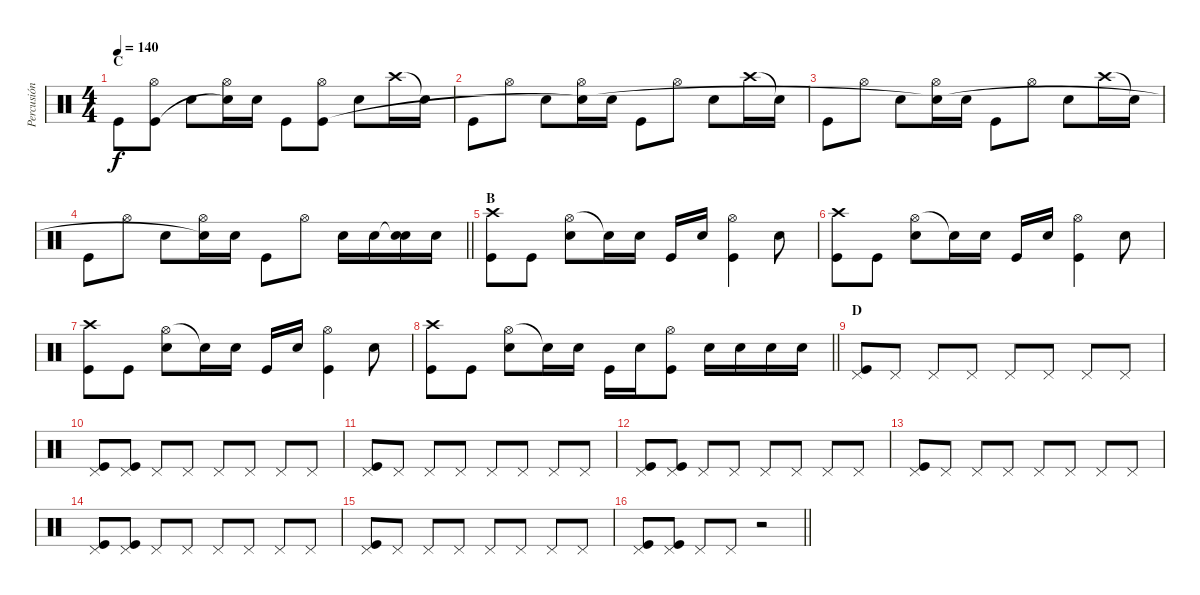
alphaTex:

\track ("Percusión" "Percusión") {instrument percussion}
\staff {score}
\articulation defaults
\ts (4 4)
\section ("" "C")
\tempo 140
\clef neutral
\ks c "Kick (hit)".8{dy f}
("Hi-Hat (open)" "Kick (hit)").8 "Electric Snare (hit)".8 ("Hi-Hat (open)" "Electric Snare (hit)"{t}).16 "Electric Snare (hit)".16 "Kick (hit)".8 ("Hi-Hat (open)" "Kick (hit)").8 "Electric Snare (hit)".8 "Crash high (hit)".16 "Snare (hit)"{t}.16 |
"Kick (hit)".8 "Hi-Hat (open)".8 "Electric Snare (hit)".8 ("Hi-Hat (open)" "Electric Snare (hit)"{t}).16 "Electric Snare (hit)".16 "Kick (hit)".8 "Hi-Hat (open)".8 "Electric Snare (hit)".8 "Crash high (hit)".16 "Snare (hit)"{t}.16 |
"Kick (hit)".8 "Hi-Hat (open)".8 "Electric Snare (hit)".8 ("Hi-Hat (open)" "Electric Snare (hit)"{t}).16 "Electric Snare (hit)".16 "Kick (hit)".8 "Hi-Hat (open)".8 "Electric Snare (hit)".8 "Crash high (hit)".16 "Snare (hit)"{t}.16 |
\barLineRight lightlight "Kick (hit)".8 "Hi-Hat (open)".8 "Electric Snare (hit)".8
("Hi-Hat (open)" "Electric Snare (hit)"{t}).16 "Electric Snare (hit)".16 "Kick (hit)".8 "Hi-Hat (open)".8 "Electric Snare (hit)".16 "Electric Snare (hit)".16 ("Snare (hit)"{t} "Electric Snare (hit)").16 "Electric Snare (hit)".16 |
\section ("" "B")
("Crash high (hit)" "Kick (hit)").8 "Kick (hit)".8 ("Hi-Hat (open)" "Electric Snare (hit)").8 "Electric Snare (hit)"{t}.16 "Electric Snare (hit)".16 "Kick (hit)".16 "Electric Snare (hit)".16 ("Hi-Hat (open)" "Kick (hit)").4 "Electric Snare (hit)".8 |
("Crash high (hit)" "Kick (hit)").8 "Kick (hit)".8 ("Hi-Hat (open)" "Electric Snare (hit)").8 "Electric Snare (hit)"{t}.16 "Electric Snare (hit)".16 "Kick (hit)".16 "Electric Snare (hit)".16 ("Hi-Hat (open)" "Kick (hit)").4 "Electric Snare (hit)".8 |
("Crash high (hit)" "Kick (hit)").8 "Kick (hit)".8 ("Hi-Hat (open)" "Electric Snare (hit)").8 "Electric Snare (hit)"{t}.16 "Electric Snare (hit)".16 "Kick (hit)".16 "Electric Snare (hit)".16 ("Hi-Hat (open)" "Kick (hit)").4 "Electric Snare (hit)".8 |
\barLineRight lightlight
("Crash high (hit)" "Kick (hit)").8 "Kick (hit)".8 ("Hi-Hat (open)" "Electric Snare (hit)").8 "Electric Snare (hit)"{t}.16 "Electric Snare (hit)".16 "Kick (hit)".16 "Electric Snare (hit)".16 ("Hi-Hat (open)" "Kick (hit)").8 "Electric Snare (hit)".16 "Electric Snare (hit)".16 "Electric Snare (hit)".16 "Electric Snare (hit)".16 |
\section ("" "D")
("Pedal Hi-Hat (hit)" "Kick (hit)").8 "Pedal Hi-Hat (hit)".8 "Pedal Hi-Hat (hit)".8 "Pedal Hi-Hat (hit)".8 "Pedal Hi-Hat (hit)".8 "Pedal Hi-Hat (hit)".8 "Pedal Hi-Hat (hit)".8 "Pedal Hi-Hat (hit)".8 |
("Pedal Hi-Hat (hit)" "Kick (hit)").8 ("Pedal Hi-Hat (hit)" "Kick (hit)").8 "Pedal Hi-Hat (hit)".8 "Pedal Hi-Hat (hit)".8 "Pedal Hi-Hat (hit)".8 "Pedal Hi-Hat (hit)".8 "Pedal Hi-Hat (hit)".8 "Pedal Hi-Hat (hit)".8 |
("Pedal Hi-Hat (hit)" "Kick (hit)").8 "Pedal Hi-Hat (hit)".8 "Pedal Hi-Hat (hit)".8 "Pedal Hi-Hat (hit)".8 "Pedal Hi-Hat (hit)".8 "Pedal Hi-Hat (hit)".8 "Pedal Hi-Hat (hit)".8 "Pedal Hi-Hat (hit)".8 |
("Pedal Hi-Hat (hit)" "Kick (hit)").8 ("Pedal Hi-Hat (hit)" "Kick (hit)").8 "Pedal Hi-Hat (hit)".8 "Pedal Hi-Hat (hit)".8 "Pedal Hi-Hat (hit)".8 "Pedal Hi-Hat (hit)".8 "Pedal Hi-Hat (hit)".8 "Pedal Hi-Hat (hit)".8 |
("Pedal Hi-Hat (hit)" "Kick (hit)").8 "Pedal Hi-Hat (hit)".8 "Pedal Hi-Hat (hit)".8 "Pedal Hi-Hat (hit)".8 "Pedal Hi-Hat (hit)".8 "Pedal Hi-Hat (hit)".8 "Pedal Hi-Hat (hit)".8 "Pedal Hi-Hat (hit)".8 |
("Pedal Hi-Hat (hit)" "Kick (hit)").8 ("Pedal Hi-Hat (hit)" "Kick (hit)").8 "Pedal Hi-Hat (hit)".8 "Pedal Hi-Hat (hit)".8 "Pedal Hi-Hat (hit)".8 "Pedal Hi-Hat (hit)".8 "Pedal Hi-Hat (hit)".8 "Pedal Hi-Hat (hit)".8 |
("Pedal Hi-Hat (hit)" "Kick (hit)").8 "Pedal Hi-Hat (hit)".8 "Pedal Hi-Hat (hit)".8 "Pedal Hi-Hat (hit)".8 "Pedal Hi-Hat (hit)".8 "Pedal Hi-Hat (hit)".8 "Pedal Hi-Hat (hit)".8 "Pedal Hi-Hat (hit)".8 |
\barLineRight lightlight
("Pedal Hi-Hat (hit)" "Kick (hit)").8 ("Pedal Hi-Hat (hit)" "Kick (hit)").8 "Pedal Hi-Hat (hit)".8 "Pedal Hi-Hat (hit)".8 r.2
